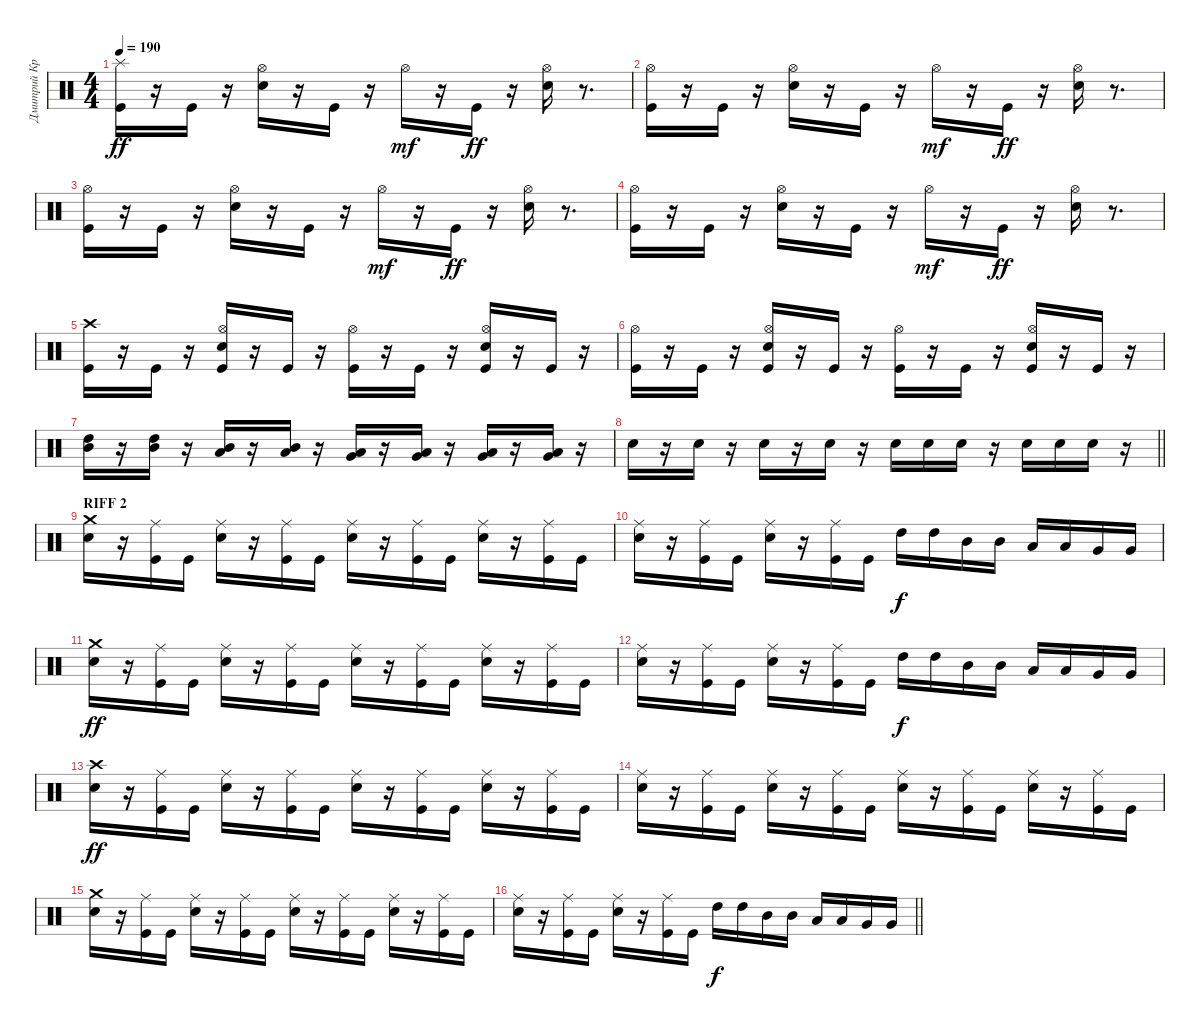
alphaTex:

\track ("Дмитрий Кривенков" "Дмитрий Кр") {instrument percussion}
\staff {score}
\articulation defaults
\ts (4 4)
\tempo 190
\clef neutral
\ks c
("Splash (hit)" "Kick (hit)").16{dy ff} r.16 "Kick (hit)".16 r.16 ("Hi-Hat (open)" "Snare (hit) 2").16 r.16 "Kick (hit)".16 r.16 "Hi-Hat (open)".16{dy mf} r.16 "Kick (hit)".16{dy ff} r.16 ("Hi-Hat (open)" "Snare (hit) 2").16 r.8{d} |
("Hi-Hat (open)" "Kick (hit)").16 r.16 "Kick (hit)".16 r.16 ("Hi-Hat (open)" "Snare (hit) 2").16 r.16 "Kick (hit)".16 r.16 "Hi-Hat (open)".16{dy mf} r.16 "Kick (hit)".16{dy ff} r.16 ("Hi-Hat (open)" "Snare (hit) 2").16 r.8{d} |
("Hi-Hat (open)" "Kick (hit)").16 r.16 "Kick (hit)".16 r.16 ("Hi-Hat (open)" "Snare (hit) 2").16 r.16 "Kick (hit)".16 r.16 "Hi-Hat (open)".16{dy mf} r.16 "Kick (hit)".16{dy ff} r.16 ("Hi-Hat (open)" "Snare (hit) 2").16 r.8{d} |
("Hi-Hat (open)" "Kick (hit)").16 r.16 "Kick (hit)".16 r.16 ("Hi-Hat (open)" "Snare (hit) 2").16 r.16 "Kick (hit)".16 r.16 "Hi-Hat (open)".16{dy mf} r.16 "Kick (hit)".16{dy ff} r.16 ("Hi-Hat (open)" "Snare (hit) 2").16 r.8{d} |
("Crash high (hit)" "Kick (hit)").16 r.16 "Kick (hit)".16 r.16 ("Hi-Hat (open)" "Kick (hit)" "Snare (hit) 2").16 r.16 "Kick (hit)".16 r.16 ("Hi-Hat (open)" "Kick (hit)").16 r.16 "Kick (hit)".16 r.16 ("Hi-Hat (open)" "Snare (hit) 2" "Kick (hit)").16 r.16 "Kick (hit)".16 r.16 |
("Hi-Hat (open)" "Kick (hit)").16 r.16 "Kick (hit)".16 r.16 ("Hi-Hat (open)" "Snare (hit) 2" "Kick (hit)").16 r.16 "Kick (hit)".16 r.16 ("Hi-Hat (open)" "Kick (hit)").16 r.16 "Kick (hit)".16 r.16 ("Hi-Hat (open)" "Snare (hit) 2" "Kick (hit)").16 r.16 "Kick (hit)".16 r.16 |
("Mid Tom (hit)" "High Tom (hit)").16 r.16 ("Mid Tom (hit)" "High Tom (hit)").16 r.16 ("Low Tom (hit)" "Mid Tom (hit)").16 r.16 ("Mid Tom (hit)" "Low Tom (hit)").16 r.16 ("Very Low Tom (hit)" "Low Tom (hit)").16 r.16 ("Very Low Tom (hit)" "Low Tom (hit)").16 r.16 ("Very Low Tom (hit)" "Low Tom (hit)").16 r.16 ("Very Low Tom (hit)" "Low Tom (hit)").16 r.16 |
\barLineRight lightlight "Snare (hit) 2".16
r.16 "Snare (hit) 2".16 r.16 "Snare (hit) 2".16 r.16 "Snare (hit) 2".16 r.16 "Snare (hit) 2".16 "Snare (hit) 2".16 "Snare (hit) 2".16 r.16 "Snare (hit) 2".16 "Snare (hit) 2".16 "Snare (hit) 2".16 r.16 |
\section ("" "RIFF 2")
("Crash medium (hit)" "Snare (hit) 2").16 r.16 ("Ride (middle)" "Kick (hit)").16 "Kick (hit)".16 ("Ride (middle)" "Snare (hit) 2").16 r.16 ("Ride (middle)" "Kick (hit)").16 "Kick (hit)".16 ("Ride (middle)" "Snare (hit) 2").16 r.16 ("Ride (middle)" "Kick (hit)").16 "Kick (hit)".16 ("Ride (middle)" "Snare (hit) 2").16 r.16 ("Ride (middle)" "Kick (hit)").16 "Kick (hit)".16 |
("Ride (middle)" "Snare (hit) 2").16 r.16 ("Ride (middle)" "Kick (hit)").16 "Kick (hit)".16 ("Ride (middle)" "Snare (hit) 2").16 r.16 ("Ride (middle)" "Kick (hit)").16 "Kick (hit)".16 "High Tom (hit)".16{dy f} "High Tom (hit)".16 "Mid Tom (hit)".16 "Mid Tom (hit)".16 "Low Tom (hit)".16 "Low Tom (hit)".16 "Very Low Tom (hit)".16 "Very Low Tom (hit)".16 |
("Crash medium (hit)" "Snare (hit) 2").16{dy ff} r.16 ("Ride (middle)" "Kick (hit)").16 "Kick (hit)".16 ("Ride (middle)" "Snare (hit) 2").16 r.16 ("Ride (middle)" "Kick (hit)").16 "Kick (hit)".16 ("Ride (middle)" "Snare (hit) 2").16 r.16 ("Ride (middle)" "Kick (hit)").16 "Kick (hit)".16 ("Ride (middle)" "Snare (hit) 2").16 r.16 ("Ride (middle)" "Kick (hit)").16 "Kick (hit)".16 |
("Ride (middle)" "Snare (hit) 2").16 r.16 ("Ride (middle)" "Kick (hit)").16 "Kick (hit)".16 ("Ride (middle)" "Snare (hit) 2").16 r.16 ("Ride (middle)" "Kick (hit)").16 "Kick (hit)".16 "High Tom (hit)".16{dy f} "High Tom (hit)".16 "Mid Tom (hit)".16 "Mid Tom (hit)".16 "Low Tom (hit)".16 "Low Tom (hit)".16 "Very Low Tom (hit)".16 "Very Low Tom (hit)".16 |
("Snare (hit) 2" "Crash high (hit)").16{dy ff} r.16 ("Ride (middle)" "Kick (hit)").16 "Kick (hit)".16 ("Ride (middle)" "Snare (hit) 2").16 r.16 ("Ride (middle)" "Kick (hit)").16 "Kick (hit)".16 ("Ride (middle)" "Snare (hit) 2").16 r.16 ("Kick (hit)" "Ride (middle)").16 "Kick (hit)".16 ("Ride (middle)" "Snare (hit) 2").16 r.16 ("Ride (middle)" "Kick (hit)").16 "Kick (hit)".16 |
("Snare (hit) 2" "Ride (middle)").16 r.16 ("Ride (middle)" "Kick (hit)").16 "Kick (hit)".16 ("Ride (middle)" "Snare (hit) 2").16 r.16 ("Ride (middle)" "Kick (hit)").16 "Kick (hit)".16 ("Ride (middle)" "Snare (hit) 2").16 r.16 ("Ride (middle)" "Kick (hit)").16 "Kick (hit)".16 ("Ride (middle)" "Snare (hit) 2").16 r.16 ("Ride (middle)" "Kick (hit)").16 "Kick (hit)".16 |
("Crash medium (hit)" "Snare (hit) 2").16 r.16 ("Ride (middle)" "Kick (hit)").16 "Kick (hit)".16 ("Ride (middle)" "Snare (hit) 2").16 r.16 ("Ride (middle)" "Kick (hit)").16 "Kick (hit)".16 ("Ride (middle)" "Snare (hit) 2").16 r.16 ("Ride (middle)" "Kick (hit)").16 "Kick (hit)".16 ("Ride (middle)" "Snare (hit) 2").16 r.16 ("Ride (middle)" "Kick (hit)").16 "Kick (hit)".16 |
\barLineRight lightlight
("Ride (middle)" "Snare (hit) 2").16 r.16 ("Ride (middle)" "Kick (hit)").16 "Kick (hit)".16 ("Ride (middle)" "Snare (hit) 2").16 r.16 ("Ride (middle)" "Kick (hit)").16 "Kick (hit)".16 "High Tom (hit)".16{dy f} "High Tom (hit)".16 "Mid Tom (hit)".16 "Mid Tom (hit)".16 "Low Tom (hit)".16 "Low Tom (hit)".16 "Very Low Tom (hit)".16 "Very Low Tom (hit)".16
